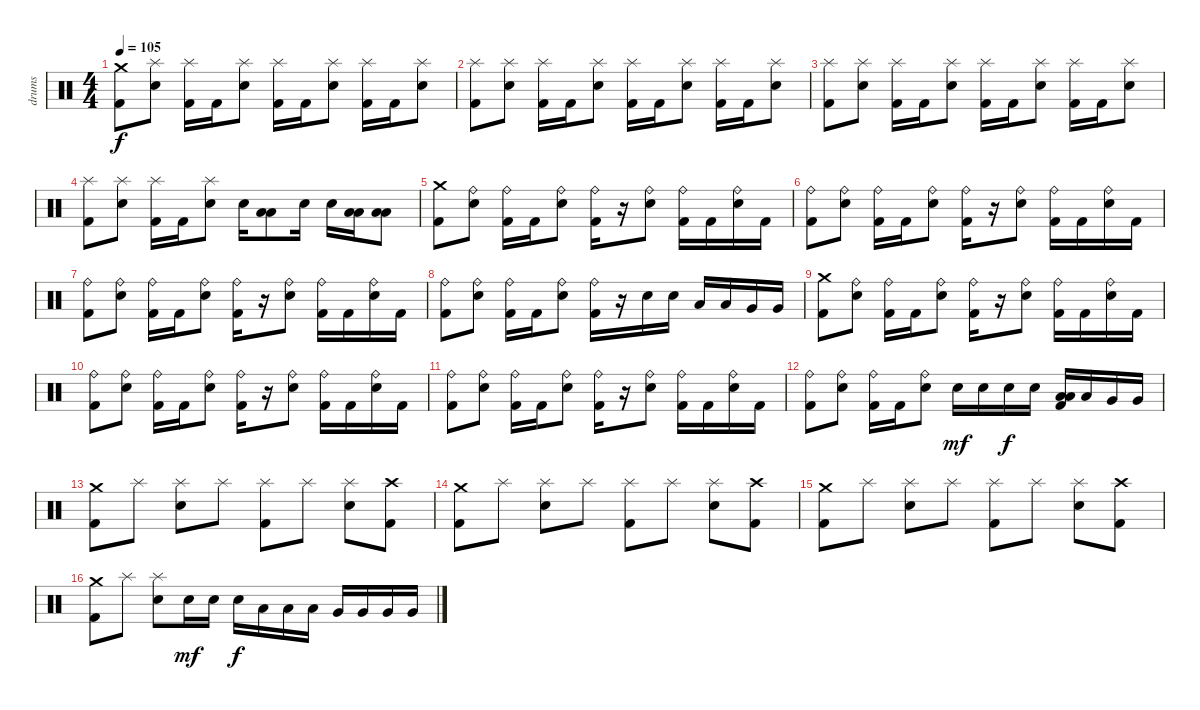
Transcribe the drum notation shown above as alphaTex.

\track ("drums" "drums") {instrument percussion}
\staff {score}
\articulation defaults
\ts (4 4)
\tempo 105
\clef neutral
\ks c
("Crash medium (hit)" "Kick (hit) 2").8{dy f} ("Splash (hit)" "Electric Snare (hit)").8 ("Splash (hit)" "Kick (hit) 2").16 "Kick (hit) 2".16 ("Splash (hit)" "Electric Snare (hit)").8 ("Splash (hit)" "Kick (hit) 2").16 "Kick (hit) 2".16 ("Splash (hit)" "Electric Snare (hit)").8 ("Splash (hit)" "Kick (hit) 2").16 "Kick (hit) 2".16 ("Splash (hit)" "Electric Snare (hit)").8 |
("Splash (hit)" "Kick (hit) 2").8 ("Splash (hit)" "Electric Snare (hit)").8 ("Splash (hit)" "Kick (hit) 2").16 "Kick (hit) 2".16 ("Splash (hit)" "Electric Snare (hit)").8 ("Splash (hit)" "Kick (hit) 2").16 "Kick (hit) 2".16 ("Splash (hit)" "Electric Snare (hit)").8 ("Splash (hit)" "Kick (hit) 2").16 "Kick (hit) 2".16 ("Splash (hit)" "Electric Snare (hit)").8 |
("Splash (hit)" "Kick (hit) 2").8 ("Splash (hit)" "Electric Snare (hit)").8 ("Splash (hit)" "Kick (hit) 2").16 "Kick (hit) 2".16 ("Splash (hit)" "Electric Snare (hit)").8 ("Splash (hit)" "Kick (hit) 2").16 "Kick (hit) 2".16 ("Splash (hit)" "Electric Snare (hit)").8 ("Splash (hit)" "Kick (hit) 2").16 "Kick (hit) 2".16 ("Splash (hit)" "Electric Snare (hit)").8 |
("Splash (hit)" "Kick (hit) 2").8 ("Splash (hit)" "Electric Snare (hit)").8 ("Splash (hit)" "Kick (hit) 2").16 "Kick (hit) 2".16 ("Splash (hit)" "Electric Snare (hit)").8 "Electric Snare (hit)".16 ("Low Tom (hit)" "Low Floor Tom (hit)").8 "Electric Snare (hit)".16 "Electric Snare (hit)".16 ("Low Tom (hit)" "Low Floor Tom (hit)").16 ("Low Tom (hit)" "Low Floor Tom (hit)").8 |
("Crash medium (hit)" "Kick (hit) 2").8 ("Ride (bell)" "Electric Snare (hit)").8 ("Ride (bell)" "Kick (hit) 2").16 "Kick (hit) 2".16 ("Ride (bell)" "Electric Snare (hit)").8 ("Ride (bell)" "Kick (hit) 2").16 r.16 ("Ride (bell)" "Electric Snare (hit)").8 ("Ride (bell)" "Kick (hit) 2").16 "Kick (hit) 2".16 ("Ride (bell)" "Electric Snare (hit)").16 "Kick (hit) 2".16 |
("Ride (bell)" "Kick (hit) 2").8 ("Ride (bell)" "Electric Snare (hit)").8 ("Ride (bell)" "Kick (hit) 2").16 "Kick (hit) 2".16 ("Ride (bell)" "Electric Snare (hit)").8 ("Ride (bell)" "Kick (hit) 2").16 r.16 ("Ride (bell)" "Electric Snare (hit)").8 ("Ride (bell)" "Kick (hit) 2").16 "Kick (hit) 2".16 ("Ride (bell)" "Electric Snare (hit)").16 "Kick (hit) 2".16 |
("Ride (bell)" "Kick (hit) 2").8 ("Ride (bell)" "Electric Snare (hit)").8 ("Ride (bell)" "Kick (hit) 2").16 "Kick (hit) 2".16 ("Ride (bell)" "Electric Snare (hit)").8 ("Ride (bell)" "Kick (hit) 2").16 r.16 ("Ride (bell)" "Electric Snare (hit)").8 ("Ride (bell)" "Kick (hit) 2").16 "Kick (hit) 2".16 ("Ride (bell)" "Electric Snare (hit)").16 "Kick (hit) 2".16 |
("Ride (bell)" "Kick (hit) 2").8 ("Ride (bell)" "Electric Snare (hit)").8 ("Ride (bell)" "Kick (hit) 2").16 "Kick (hit) 2".16 ("Ride (bell)" "Electric Snare (hit)").8 ("Ride (bell)" "Kick (hit) 2").16 r.16 "Electric Snare (hit)".16 "Electric Snare (hit)".16 "Low Tom (hit)".16 "Low Tom (hit)".16 "Very Low Tom (hit)".16 "Very Low Tom (hit)".16 |
("Crash medium (hit)" "Kick (hit) 2").8 ("Ride (bell)" "Electric Snare (hit)").8 ("Ride (bell)" "Kick (hit) 2").16 "Kick (hit) 2".16 ("Ride (bell)" "Electric Snare (hit)").8 ("Ride (bell)" "Kick (hit) 2").16 r.16 ("Ride (bell)" "Electric Snare (hit)").8 ("Ride (bell)" "Kick (hit) 2").16 "Kick (hit) 2".16 ("Ride (bell)" "Electric Snare (hit)").16 "Kick (hit) 2".16 |
("Ride (bell)" "Kick (hit) 2").8 ("Ride (bell)" "Electric Snare (hit)").8 ("Ride (bell)" "Kick (hit) 2").16 "Kick (hit) 2".16 ("Ride (bell)" "Electric Snare (hit)").8 ("Ride (bell)" "Kick (hit) 2").16 r.16 ("Ride (bell)" "Electric Snare (hit)").8 ("Ride (bell)" "Kick (hit) 2").16 "Kick (hit) 2".16 ("Ride (bell)" "Electric Snare (hit)").16 "Kick (hit) 2".16 |
("Ride (bell)" "Kick (hit) 2").8 ("Ride (bell)" "Electric Snare (hit)").8 ("Ride (bell)" "Kick (hit) 2").16 "Kick (hit) 2".16 ("Ride (bell)" "Electric Snare (hit)").8 ("Ride (bell)" "Kick (hit) 2").16 r.16 ("Ride (bell)" "Electric Snare (hit)").8 ("Ride (bell)" "Kick (hit) 2").16 "Kick (hit) 2".16 ("Ride (bell)" "Electric Snare (hit)").16 "Kick (hit) 2".16 |
("Ride (bell)" "Kick (hit) 2").8 ("Ride (bell)" "Electric Snare (hit)").8 ("Ride (bell)" "Kick (hit) 2").16 "Kick (hit) 2".16 ("Ride (bell)" "Electric Snare (hit)").8 "Electric Snare (hit)".16{dy mf} "Electric Snare (hit)".16 "Electric Snare (hit)".16{dy f} "Electric Snare (hit)".16 ("Low Floor Tom (hit)" "Low Tom (hit)" "Kick (hit) 2").16 "Low Tom (hit)".16 "Very Low Tom (hit)".16 "Very Low Tom (hit)".16 |
("Crash medium (hit)" "Kick (hit) 2").8 "Splash (hit)".8 ("Splash (hit)" "Electric Snare (hit)").8 "Splash (hit)".8 ("Splash (hit)" "Kick (hit) 2").8 "Splash (hit)".8 ("Splash (hit)" "Electric Snare (hit)").8 ("Crash high (hit)" "Kick (hit) 2").8 |
("Crash medium (hit)" "Kick (hit) 2").8 "Splash (hit)".8 ("Splash (hit)" "Electric Snare (hit)").8 "Splash (hit)".8 ("Splash (hit)" "Kick (hit) 2").8 "Splash (hit)".8 ("Splash (hit)" "Electric Snare (hit)").8 ("Crash high (hit)" "Kick (hit) 2").8 |
("Crash medium (hit)" "Kick (hit) 2").8 "Splash (hit)".8 ("Splash (hit)" "Electric Snare (hit)").8 "Splash (hit)".8 ("Splash (hit)" "Kick (hit) 2").8 "Splash (hit)".8 ("Splash (hit)" "Electric Snare (hit)").8 ("Crash high (hit)" "Kick (hit) 2").8 |
("Crash medium (hit)" "Kick (hit) 2").8 "Splash (hit)".8 ("Splash (hit)" "Electric Snare (hit)").8 "Electric Snare (hit)".16{dy mf} "Electric Snare (hit)".16 "Electric Snare (hit)".16{dy f} "Low Tom (hit)".16 "Low Tom (hit)".16 "Low Tom (hit)".16 "Very Low Tom (hit)".16 "Very Low Tom (hit)".16 "Very Low Tom (hit)".16 "Very Low Tom (hit)".16
